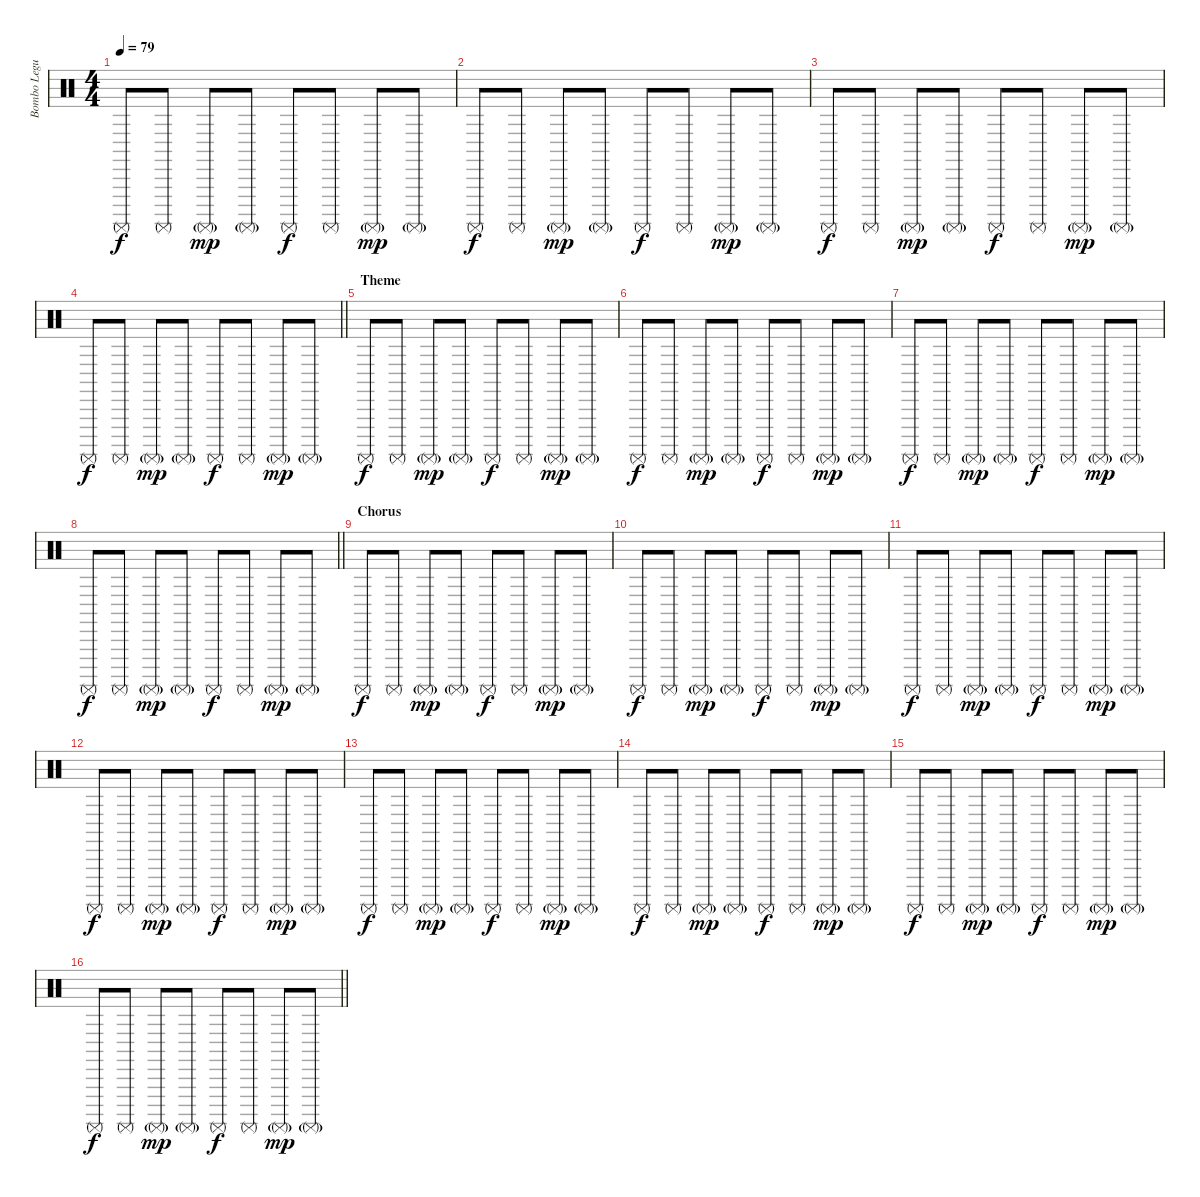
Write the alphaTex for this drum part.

\track ("Bombo Leguero" "Bombo Legu") {instrument percussion}
\staff {score}
\articulation defaults
\ts (4 4)
\tempo 79
\clef neutral
\ks c "Surdo (mute)".8{dy f} "Surdo (mute)".8 "Surdo (mute)"{g}.8{dy mp} "Surdo (mute)"{g}.8 "Surdo (mute)".8{dy f} "Surdo (mute)".8 "Surdo (mute)"{g}.8{dy mp} "Surdo (mute)"{g}.8
|
"Surdo (mute)".8{dy f} "Surdo (mute)".8 "Surdo (mute)"{g}.8{dy mp} "Surdo (mute)"{g}.8 "Surdo (mute)".8{dy f} "Surdo (mute)".8 "Surdo (mute)"{g}.8{dy mp} "Surdo (mute)"{g}.8 |
"Surdo (mute)".8{dy f} "Surdo (mute)".8 "Surdo (mute)"{g}.8{dy mp} "Surdo (mute)"{g}.8 "Surdo (mute)".8{dy f} "Surdo (mute)".8 "Surdo (mute)"{g}.8{dy mp} "Surdo (mute)"{g}.8 |
\barLineRight lightlight "Surdo (mute)".8{dy f} "Surdo (mute)".8 "Surdo (mute)"{g}.8{dy mp} "Surdo (mute)"{g}.8 "Surdo (mute)".8{dy f} "Surdo (mute)".8 "Surdo (mute)"{g}.8{dy mp} "Surdo (mute)"{g}.8
|
\section ("" "Theme")
"Surdo (mute)".8{dy f} "Surdo (mute)".8 "Surdo (mute)"{g}.8{dy mp} "Surdo (mute)"{g}.8 "Surdo (mute)".8{dy f} "Surdo (mute)".8 "Surdo (mute)"{g}.8{dy mp} "Surdo (mute)"{g}.8 |
"Surdo (mute)".8{dy f} "Surdo (mute)".8 "Surdo (mute)"{g}.8{dy mp} "Surdo (mute)"{g}.8 "Surdo (mute)".8{dy f} "Surdo (mute)".8 "Surdo (mute)"{g}.8{dy mp} "Surdo (mute)"{g}.8 |
"Surdo (mute)".8{dy f} "Surdo (mute)".8 "Surdo (mute)"{g}.8{dy mp} "Surdo (mute)"{g}.8 "Surdo (mute)".8{dy f} "Surdo (mute)".8 "Surdo (mute)"{g}.8{dy mp} "Surdo (mute)"{g}.8 |
\barLineRight lightlight "Surdo (mute)".8{dy f} "Surdo (mute)".8 "Surdo (mute)"{g}.8{dy mp} "Surdo (mute)"{g}.8 "Surdo (mute)".8{dy f} "Surdo (mute)".8 "Surdo (mute)"{g}.8{dy mp} "Surdo (mute)"{g}.8
|
\section ("" "Chorus")
"Surdo (mute)".8{dy f} "Surdo (mute)".8 "Surdo (mute)"{g}.8{dy mp} "Surdo (mute)"{g}.8 "Surdo (mute)".8{dy f} "Surdo (mute)".8 "Surdo (mute)"{g}.8{dy mp} "Surdo (mute)"{g}.8 |
"Surdo (mute)".8{dy f} "Surdo (mute)".8 "Surdo (mute)"{g}.8{dy mp} "Surdo (mute)"{g}.8 "Surdo (mute)".8{dy f} "Surdo (mute)".8 "Surdo (mute)"{g}.8{dy mp} "Surdo (mute)"{g}.8 |
"Surdo (mute)".8{dy f} "Surdo (mute)".8 "Surdo (mute)"{g}.8{dy mp} "Surdo (mute)"{g}.8 "Surdo (mute)".8{dy f} "Surdo (mute)".8 "Surdo (mute)"{g}.8{dy mp} "Surdo (mute)"{g}.8 |
"Surdo (mute)".8{dy f} "Surdo (mute)".8 "Surdo (mute)"{g}.8{dy mp} "Surdo (mute)"{g}.8 "Surdo (mute)".8{dy f} "Surdo (mute)".8 "Surdo (mute)"{g}.8{dy mp} "Surdo (mute)"{g}.8 |
"Surdo (mute)".8{dy f} "Surdo (mute)".8 "Surdo (mute)"{g}.8{dy mp} "Surdo (mute)"{g}.8 "Surdo (mute)".8{dy f} "Surdo (mute)".8 "Surdo (mute)"{g}.8{dy mp} "Surdo (mute)"{g}.8 |
"Surdo (mute)".8{dy f} "Surdo (mute)".8 "Surdo (mute)"{g}.8{dy mp} "Surdo (mute)"{g}.8 "Surdo (mute)".8{dy f} "Surdo (mute)".8 "Surdo (mute)"{g}.8{dy mp} "Surdo (mute)"{g}.8 |
"Surdo (mute)".8{dy f} "Surdo (mute)".8 "Surdo (mute)"{g}.8{dy mp} "Surdo (mute)"{g}.8 "Surdo (mute)".8{dy f} "Surdo (mute)".8 "Surdo (mute)"{g}.8{dy mp} "Surdo (mute)"{g}.8 |
\barLineRight lightlight "Surdo (mute)".8{dy f} "Surdo (mute)".8 "Surdo (mute)"{g}.8{dy mp} "Surdo (mute)"{g}.8 "Surdo (mute)".8{dy f} "Surdo (mute)".8 "Surdo (mute)"{g}.8{dy mp} "Surdo (mute)"{g}.8
